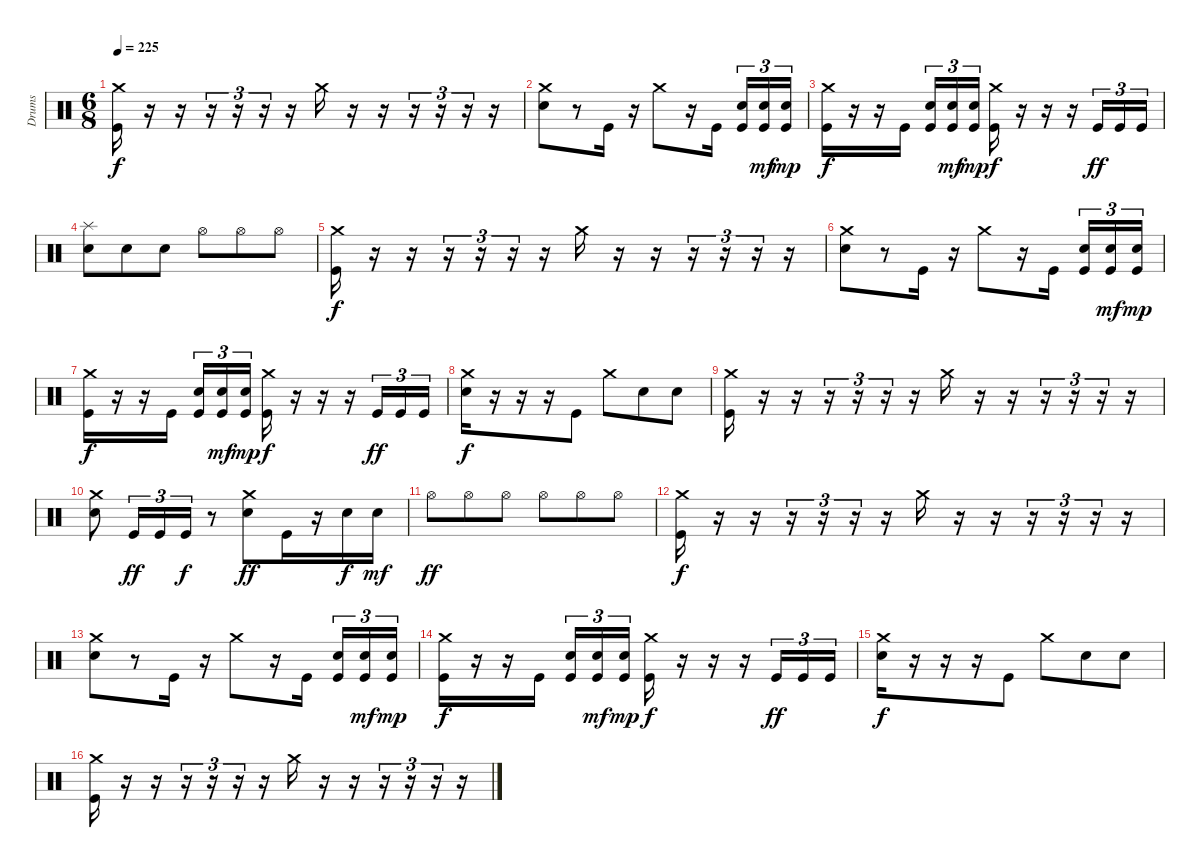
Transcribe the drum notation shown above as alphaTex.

\track ("Drums" "Drums") {instrument percussion}
\staff {score}
\articulation defaults
\ts (6 8)
\tempo 225
\clef neutral
\ks c
("Kick (hit)" "Crash medium (hit)").16{dy f} r.16 r.16 r.16{tu (3 2)} r.16{tu (3 2)} r.16{tu (3 2)} r.16 "Crash medium (hit)".16 r.16 r.16 r.16{tu (3 2)} r.16{tu (3 2)} r.16{tu (3 2)} r.16 |
("Snare (hit) 2" "Crash medium (hit)").8 r.8 "Kick (hit)".16 r.16 "Crash medium (hit)".8 r.16 "Kick (hit)".16{beam splitsecondary} ("Kick (hit)" "Snare (hit) 2").16{tu (3 2)} ("Kick (hit)" "Snare (hit) 2").16{tu (3 2) dy mf} ("Kick (hit)" "Snare (hit) 2").16{tu (3 2) dy mp} |
("Kick (hit)" "Crash medium (hit)").16{dy f} r.16 r.16 "Kick (hit)".16{beam splitsecondary} ("Kick (hit)" "Snare (hit) 2").16{tu (3 2)} ("Kick (hit)" "Snare (hit) 2").16{tu (3 2) dy mf} ("Kick (hit)" "Snare (hit) 2").16{tu (3 2) dy mp} ("Kick (hit)" "Crash medium (hit)").16{dy f} r.16 r.16 r.16 "Kick (hit)".16{tu (3 2) dy ff} "Kick (hit)".16{tu (3 2)} "Kick (hit)".16{tu (3 2)} |
("Splash (hit)" "Snare (hit) 2").8 "Snare (hit) 2".8 "Snare (hit) 2".8 "Hi-Hat (open)".8 "Hi-Hat (open)".8 "Hi-Hat (open)".8 |
("Kick (hit)" "Crash medium (hit)").16{dy f} r.16 r.16 r.16{tu (3 2)} r.16{tu (3 2)} r.16{tu (3 2)} r.16 "Crash medium (hit)".16 r.16 r.16 r.16{tu (3 2)} r.16{tu (3 2)} r.16{tu (3 2)} r.16 |
("Snare (hit) 2" "Crash medium (hit)").8 r.8 "Kick (hit)".16 r.16 "Crash medium (hit)".8 r.16 "Kick (hit)".16{beam splitsecondary} ("Kick (hit)" "Snare (hit) 2").16{tu (3 2)} ("Kick (hit)" "Snare (hit) 2").16{tu (3 2) dy mf} ("Kick (hit)" "Snare (hit) 2").16{tu (3 2) dy mp} |
("Kick (hit)" "Crash medium (hit)").16{dy f} r.16 r.16 "Kick (hit)".16{beam splitsecondary} ("Kick (hit)" "Snare (hit) 2").16{tu (3 2)} ("Kick (hit)" "Snare (hit) 2").16{tu (3 2) dy mf} ("Kick (hit)" "Snare (hit) 2").16{tu (3 2) dy mp} ("Kick (hit)" "Crash medium (hit)").16{dy f} r.16 r.16 r.16 "Kick (hit)".16{tu (3 2) dy ff} "Kick (hit)".16{tu (3 2)} "Kick (hit)".16{tu (3 2)} |
("Snare (hit) 2" "Crash medium (hit)").16{dy f} r.16 r.16 r.16 "Kick (hit)".8 "Crash medium (hit)".8 "Snare (hit) 2".8 "Snare (hit) 2".8 |
("Kick (hit)" "Crash medium (hit)").16 r.16 r.16 r.16{tu (3 2)} r.16{tu (3 2)} r.16{tu (3 2)} r.16 "Crash medium (hit)".16 r.16 r.16 r.16{tu (3 2)} r.16{tu (3 2)} r.16{tu (3 2)} r.16 |
("Snare (hit) 2" "Crash medium (hit)").8 "Kick (hit)".16{tu (3 2) dy ff} "Kick (hit)".16{tu (3 2)} "Kick (hit)".16{tu (3 2) dy f} r.8 ("Snare (hit) 2" "Crash medium (hit)").8{dy ff} "Kick (hit)".16 r.16 "Snare (hit) 2".16{dy f} "Snare (hit) 2".16{dy mf} |
"Hi-Hat (open)".8{dy ff} "Hi-Hat (open)".8 "Hi-Hat (open)".8 "Hi-Hat (open)".8 "Hi-Hat (open)".8 "Hi-Hat (open)".8 |
("Kick (hit)" "Crash medium (hit)").16{dy f} r.16 r.16 r.16{tu (3 2)} r.16{tu (3 2)} r.16{tu (3 2)} r.16 "Crash medium (hit)".16 r.16 r.16 r.16{tu (3 2)} r.16{tu (3 2)} r.16{tu (3 2)} r.16 |
("Snare (hit) 2" "Crash medium (hit)").8 r.8 "Kick (hit)".16 r.16 "Crash medium (hit)".8 r.16 "Kick (hit)".16{beam splitsecondary} ("Kick (hit)" "Snare (hit) 2").16{tu (3 2)} ("Kick (hit)" "Snare (hit) 2").16{tu (3 2) dy mf} ("Kick (hit)" "Snare (hit) 2").16{tu (3 2) dy mp} |
("Kick (hit)" "Crash medium (hit)").16{dy f} r.16 r.16 "Kick (hit)".16{beam splitsecondary} ("Kick (hit)" "Snare (hit) 2").16{tu (3 2)} ("Kick (hit)" "Snare (hit) 2").16{tu (3 2) dy mf} ("Kick (hit)" "Snare (hit) 2").16{tu (3 2) dy mp} ("Kick (hit)" "Crash medium (hit)").16{dy f} r.16 r.16 r.16 "Kick (hit)".16{tu (3 2) dy ff} "Kick (hit)".16{tu (3 2)} "Kick (hit)".16{tu (3 2)} |
("Snare (hit) 2" "Crash medium (hit)").16{dy f} r.16 r.16 r.16 "Kick (hit)".8 "Crash medium (hit)".8 "Snare (hit) 2".8 "Snare (hit) 2".8 |
("Kick (hit)" "Crash medium (hit)").16 r.16 r.16 r.16{tu (3 2)} r.16{tu (3 2)} r.16{tu (3 2)} r.16 "Crash medium (hit)".16 r.16 r.16 r.16{tu (3 2)} r.16{tu (3 2)} r.16{tu (3 2)} r.16
